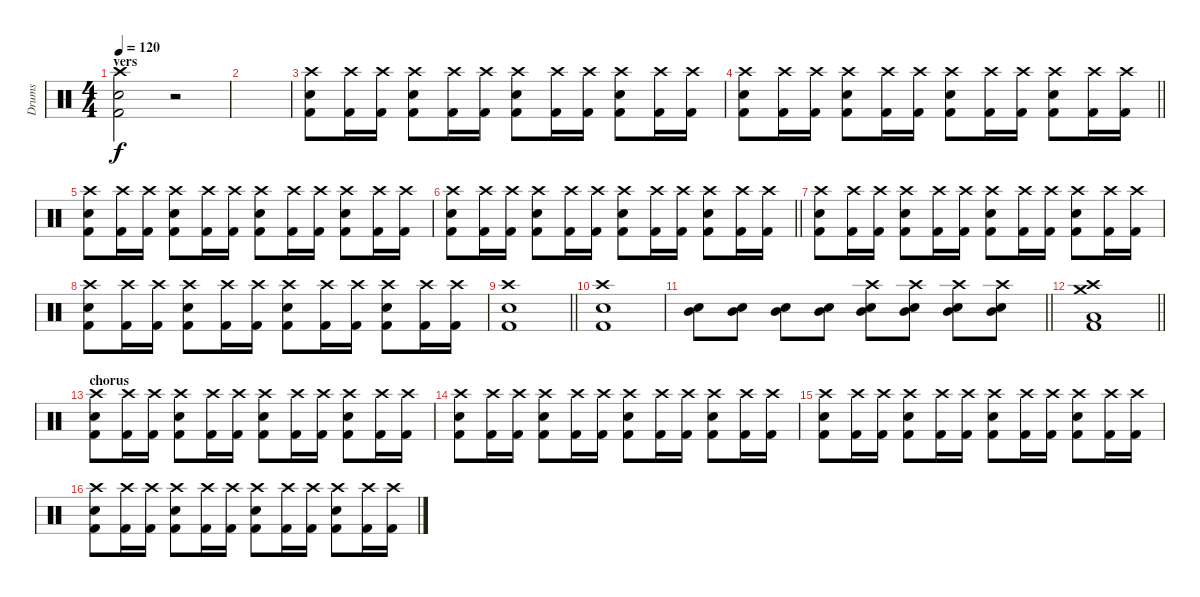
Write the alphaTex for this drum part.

\track ("Drums" "Drums") {instrument percussion}
\staff {score}
\articulation defaults
\ts (4 4)
\section ("" "vers")
\tempo 120
\clef neutral
\ks c
("Electric Snare (hit)" "Kick (hit) 2" "Crash high (hit)").2{dy f} r.2 |
|
("Electric Snare (hit)" "Crash high (hit)" "Kick (hit) 2").8 ("Crash high (hit)" "Kick (hit) 2").16 ("Crash high (hit)" "Kick (hit) 2").16 ("Electric Snare (hit)" "Crash high (hit)" "Kick (hit) 2").8 ("Crash high (hit)" "Kick (hit) 2").16 ("Crash high (hit)" "Kick (hit) 2").16 ("Electric Snare (hit)" "Crash high (hit)" "Kick (hit) 2").8 ("Crash high (hit)" "Kick (hit) 2").16 ("Crash high (hit)" "Kick (hit) 2").16 ("Electric Snare (hit)" "Crash high (hit)" "Kick (hit) 2").8 ("Crash high (hit)" "Kick (hit) 2").16 ("Crash high (hit)" "Kick (hit) 2").16 |
\barLineRight lightlight
("Electric Snare (hit)" "Crash high (hit)" "Kick (hit) 2").8 ("Crash high (hit)" "Kick (hit) 2").16 ("Crash high (hit)" "Kick (hit) 2").16 ("Electric Snare (hit)" "Crash high (hit)" "Kick (hit) 2").8 ("Crash high (hit)" "Kick (hit) 2").16 ("Crash high (hit)" "Kick (hit) 2").16 ("Electric Snare (hit)" "Crash high (hit)" "Kick (hit) 2").8 ("Crash high (hit)" "Kick (hit) 2").16 ("Crash high (hit)" "Kick (hit) 2").16 ("Electric Snare (hit)" "Crash high (hit)" "Kick (hit) 2").8 ("Crash high (hit)" "Kick (hit) 2").16 ("Crash high (hit)" "Kick (hit) 2").16 |
("Electric Snare (hit)" "Crash high (hit)" "Kick (hit) 2").8 ("Crash high (hit)" "Kick (hit) 2").16 ("Crash high (hit)" "Kick (hit) 2").16 ("Electric Snare (hit)" "Crash high (hit)" "Kick (hit) 2").8 ("Crash high (hit)" "Kick (hit) 2").16 ("Crash high (hit)" "Kick (hit) 2").16 ("Electric Snare (hit)" "Crash high (hit)" "Kick (hit) 2").8 ("Crash high (hit)" "Kick (hit) 2").16 ("Crash high (hit)" "Kick (hit) 2").16 ("Electric Snare (hit)" "Crash high (hit)" "Kick (hit) 2").8 ("Crash high (hit)" "Kick (hit) 2").16 ("Crash high (hit)" "Kick (hit) 2").16 |
\barLineRight lightlight
("Electric Snare (hit)" "Crash high (hit)" "Kick (hit) 2").8 ("Crash high (hit)" "Kick (hit) 2").16 ("Crash high (hit)" "Kick (hit) 2").16 ("Electric Snare (hit)" "Crash high (hit)" "Kick (hit) 2").8 ("Crash high (hit)" "Kick (hit) 2").16 ("Crash high (hit)" "Kick (hit) 2").16 ("Electric Snare (hit)" "Crash high (hit)" "Kick (hit) 2").8 ("Crash high (hit)" "Kick (hit) 2").16 ("Crash high (hit)" "Kick (hit) 2").16 ("Electric Snare (hit)" "Crash high (hit)" "Kick (hit) 2").8 ("Crash high (hit)" "Kick (hit) 2").16 ("Crash high (hit)" "Kick (hit) 2").16 |
("Electric Snare (hit)" "Crash high (hit)" "Kick (hit) 2").8 ("Crash high (hit)" "Kick (hit) 2").16 ("Crash high (hit)" "Kick (hit) 2").16 ("Electric Snare (hit)" "Crash high (hit)" "Kick (hit) 2").8 ("Crash high (hit)" "Kick (hit) 2").16 ("Crash high (hit)" "Kick (hit) 2").16 ("Electric Snare (hit)" "Crash high (hit)" "Kick (hit) 2").8 ("Crash high (hit)" "Kick (hit) 2").16 ("Crash high (hit)" "Kick (hit) 2").16 ("Electric Snare (hit)" "Crash high (hit)" "Kick (hit) 2").8 ("Crash high (hit)" "Kick (hit) 2").16 ("Crash high (hit)" "Kick (hit) 2").16 |
("Electric Snare (hit)" "Crash high (hit)" "Kick (hit) 2").8 ("Crash high (hit)" "Kick (hit) 2").16 ("Crash high (hit)" "Kick (hit) 2").16 ("Electric Snare (hit)" "Crash high (hit)" "Kick (hit) 2").8 ("Crash high (hit)" "Kick (hit) 2").16 ("Crash high (hit)" "Kick (hit) 2").16 ("Electric Snare (hit)" "Crash high (hit)" "Kick (hit) 2").8 ("Crash high (hit)" "Kick (hit) 2").16 ("Crash high (hit)" "Kick (hit) 2").16 ("Electric Snare (hit)" "Crash high (hit)" "Kick (hit) 2").8 ("Crash high (hit)" "Kick (hit) 2").16 ("Crash high (hit)" "Kick (hit) 2").16 |
\barLineRight lightlight
("Crash high (hit)" "Kick (hit) 2" "Electric Snare (hit)").1 |
("Crash high (hit)" "Kick (hit) 2" "Electric Snare (hit)").1 |
\barLineRight lightlight
("Mid Tom (hit)" "Electric Snare (hit)").8 ("Mid Tom (hit)" "Electric Snare (hit)").8 ("Mid Tom (hit)" "Electric Snare (hit)").8 ("Mid Tom (hit)" "Electric Snare (hit)").8 ("Mid Tom (hit)" "Crash high (hit)" "Electric Snare (hit)").8 ("Mid Tom (hit)" "Crash high (hit)" "Electric Snare (hit)").8 ("Mid Tom (hit)" "Crash high (hit)" "Electric Snare (hit)").8 ("Mid Tom (hit)" "Crash high (hit)" "Electric Snare (hit)").8 |
\barLineRight lightlight
("Low Tom (hit)" "Kick (hit) 2" "Crash medium (hit)" "Crash high (hit)").1 |
\section ("" "chorus")
("Electric Snare (hit)" "Crash high (hit)" "Kick (hit) 2").8 ("Crash high (hit)" "Kick (hit) 2").16 ("Crash high (hit)" "Kick (hit) 2").16 ("Electric Snare (hit)" "Crash high (hit)" "Kick (hit) 2").8 ("Crash high (hit)" "Kick (hit) 2").16 ("Crash high (hit)" "Kick (hit) 2").16 ("Electric Snare (hit)" "Crash high (hit)" "Kick (hit) 2").8 ("Crash high (hit)" "Kick (hit) 2").16 ("Crash high (hit)" "Kick (hit) 2").16 ("Electric Snare (hit)" "Crash high (hit)" "Kick (hit) 2").8 ("Crash high (hit)" "Kick (hit) 2").16 ("Crash high (hit)" "Kick (hit) 2").16 |
("Electric Snare (hit)" "Crash high (hit)" "Kick (hit) 2").8 ("Crash high (hit)" "Kick (hit) 2").16 ("Crash high (hit)" "Kick (hit) 2").16 ("Electric Snare (hit)" "Crash high (hit)" "Kick (hit) 2").8 ("Crash high (hit)" "Kick (hit) 2").16 ("Crash high (hit)" "Kick (hit) 2").16 ("Electric Snare (hit)" "Crash high (hit)" "Kick (hit) 2").8 ("Crash high (hit)" "Kick (hit) 2").16 ("Crash high (hit)" "Kick (hit) 2").16 ("Electric Snare (hit)" "Crash high (hit)" "Kick (hit) 2").8 ("Crash high (hit)" "Kick (hit) 2").16 ("Crash high (hit)" "Kick (hit) 2").16 |
("Electric Snare (hit)" "Crash high (hit)" "Kick (hit) 2").8 ("Crash high (hit)" "Kick (hit) 2").16 ("Crash high (hit)" "Kick (hit) 2").16 ("Electric Snare (hit)" "Crash high (hit)" "Kick (hit) 2").8 ("Crash high (hit)" "Kick (hit) 2").16 ("Crash high (hit)" "Kick (hit) 2").16 ("Electric Snare (hit)" "Crash high (hit)" "Kick (hit) 2").8 ("Crash high (hit)" "Kick (hit) 2").16 ("Crash high (hit)" "Kick (hit) 2").16 ("Electric Snare (hit)" "Crash high (hit)" "Kick (hit) 2").8 ("Crash high (hit)" "Kick (hit) 2").16 ("Crash high (hit)" "Kick (hit) 2").16 |
("Electric Snare (hit)" "Crash high (hit)" "Kick (hit) 2").8 ("Crash high (hit)" "Kick (hit) 2").16 ("Crash high (hit)" "Kick (hit) 2").16 ("Electric Snare (hit)" "Crash high (hit)" "Kick (hit) 2").8 ("Crash high (hit)" "Kick (hit) 2").16 ("Crash high (hit)" "Kick (hit) 2").16 ("Electric Snare (hit)" "Crash high (hit)" "Kick (hit) 2").8 ("Crash high (hit)" "Kick (hit) 2").16 ("Crash high (hit)" "Kick (hit) 2").16 ("Electric Snare (hit)" "Crash high (hit)" "Kick (hit) 2").8 ("Crash high (hit)" "Kick (hit) 2").16 ("Crash high (hit)" "Kick (hit) 2").16
